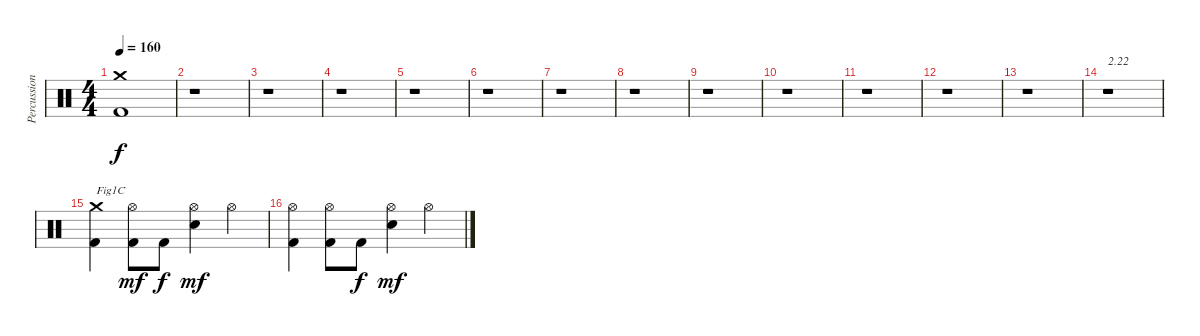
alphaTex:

\track ("Percussions" "Percussion") {instrument percussion}
\staff {score}
\articulation defaults
\ts (4 4)
\tempo 160
\clef neutral
\ks c
("Kick (hit) 2" "Crash medium (hit)").1{dy f} |
r.1 |
r.1 |
r.1 |
r.1 |
r.1 |
r.1 |
r.1 |
r.1 |
r.1 |
r.1 |
r.1 |
r.1 |
r.1{txt "2.22"} |
("Kick (hit) 2" "Crash medium (hit)").4{txt "Fig1C"} ("Kick (hit) 2" "Hi-Hat (open)").8{dy mf} "Kick (hit) 2".8{dy f} ("Electric Snare (hit)" "Hi-Hat (open)").4{dy mf} "Hi-Hat (open)".4 |
("Kick (hit) 2" "Hi-Hat (open)").4 ("Kick (hit) 2" "Hi-Hat (open)").8 "Kick (hit) 2".8{dy f} ("Electric Snare (hit)" "Hi-Hat (open)").4{dy mf} "Hi-Hat (open)".4
